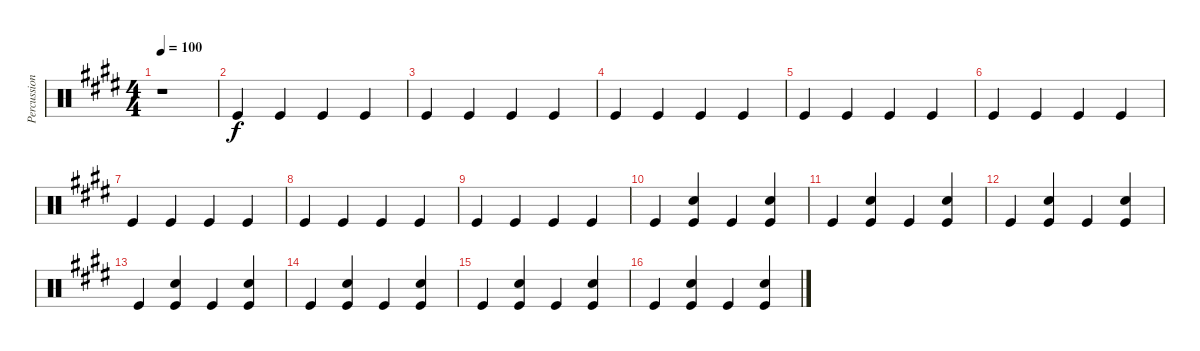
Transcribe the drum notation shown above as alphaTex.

\track ("Percussion" "Percussion") {instrument percussion}
\staff {score}
\articulation defaults
\ts (4 4)
\tempo 100
\clef neutral
\ks e
r.1{dy f} |
"Kick (hit)".4 "Kick (hit)".4 "Kick (hit)".4 "Kick (hit)".4 |
"Kick (hit)".4 "Kick (hit)".4 "Kick (hit)".4 "Kick (hit)".4 |
"Kick (hit)".4 "Kick (hit)".4 "Kick (hit)".4 "Kick (hit)".4 |
"Kick (hit)".4 "Kick (hit)".4 "Kick (hit)".4 "Kick (hit)".4 |
"Kick (hit)".4 "Kick (hit)".4 "Kick (hit)".4 "Kick (hit)".4 |
"Kick (hit)".4 "Kick (hit)".4 "Kick (hit)".4 "Kick (hit)".4 |
"Kick (hit)".4 "Kick (hit)".4 "Kick (hit)".4 "Kick (hit)".4 |
"Kick (hit)".4 "Kick (hit)".4 "Kick (hit)".4 "Kick (hit)".4 |
"Kick (hit)".4 ("Snare (hit) 2" "Kick (hit)").4 "Kick (hit)".4 ("Snare (hit) 2" "Kick (hit)").4 |
"Kick (hit)".4 ("Snare (hit) 2" "Kick (hit)").4 "Kick (hit)".4 ("Snare (hit) 2" "Kick (hit)").4 |
"Kick (hit)".4 ("Snare (hit) 2" "Kick (hit)").4 "Kick (hit)".4 ("Snare (hit) 2" "Kick (hit)").4 |
"Kick (hit)".4 ("Snare (hit) 2" "Kick (hit)").4 "Kick (hit)".4 ("Snare (hit) 2" "Kick (hit)").4 |
"Kick (hit)".4 ("Snare (hit) 2" "Kick (hit)").4 "Kick (hit)".4 ("Snare (hit) 2" "Kick (hit)").4 |
"Kick (hit)".4 ("Snare (hit) 2" "Kick (hit)").4 "Kick (hit)".4 ("Snare (hit) 2" "Kick (hit)").4 |
"Kick (hit)".4 ("Snare (hit) 2" "Kick (hit)").4 "Kick (hit)".4 ("Snare (hit) 2" "Kick (hit)").4
